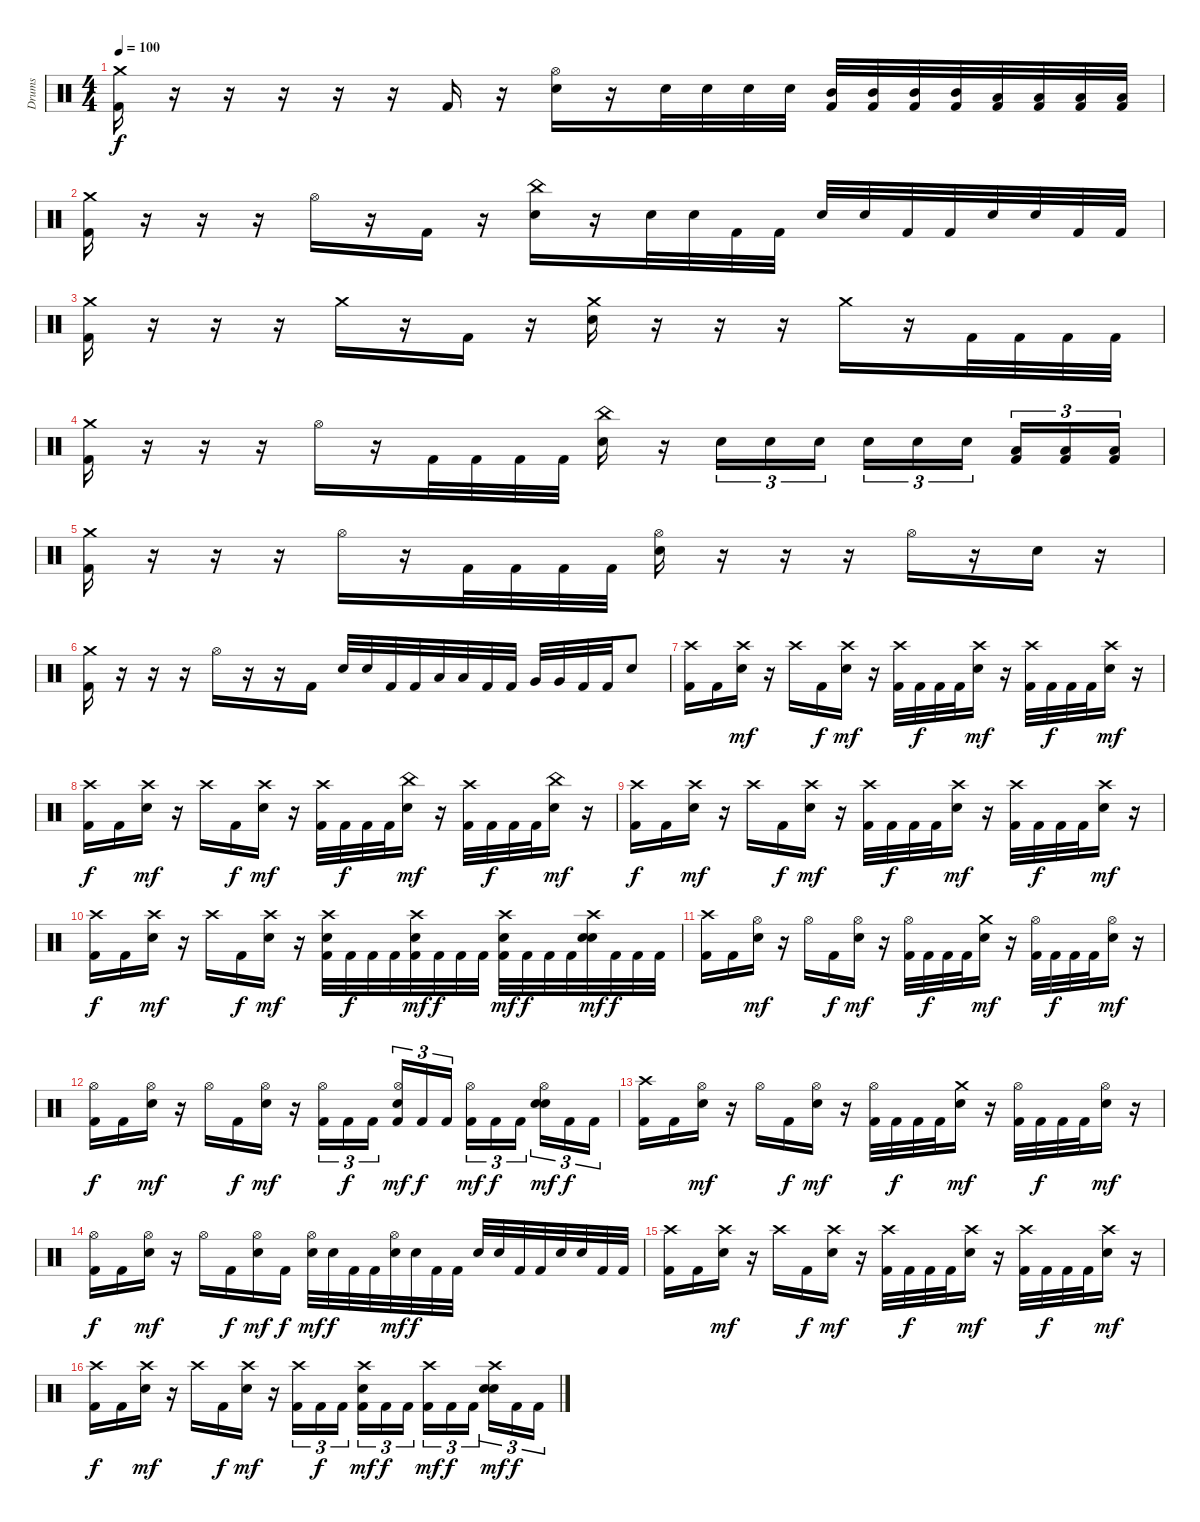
\track ("Drums " "Drums ") {instrument percussion}
\staff {score}
\articulation defaults
\ts (4 4)
\tempo 100
\clef neutral
\ks c
("Crash medium (hit)" "Kick (hit) 2").16{dy f} r.16 r.16 r.16 r.16 r.16 "Kick (hit) 2".16 r.16 ("Hi-Hat (open)" "Electric Snare (hit)").16 r.16 "Electric Snare (hit)".32 "Electric Snare (hit)".32 "Electric Snare (hit)".32 "Electric Snare (hit)".32 ("Mid Tom (hit)" "Kick (hit) 2").32 ("Mid Tom (hit)" "Kick (hit) 2").32 ("Mid Tom (hit)" "Kick (hit) 2").32 ("Mid Tom (hit)" "Kick (hit) 2").32 ("Low Tom (hit)" "Kick (hit) 2").32 ("Low Tom (hit)" "Kick (hit) 2").32 ("Low Tom (hit)" "Kick (hit) 2").32 ("Low Tom (hit)" "Kick (hit) 2").32 |
("Crash medium (hit)" "Kick (hit) 2").16 r.16 r.16 r.16 "Hi-Hat (open)".16 r.16 "Kick (hit) 2".16 r.16 ("China (hit)" "Electric Snare (hit)").16 r.16 "Electric Snare (hit)".32 "Electric Snare (hit)".32 "Kick (hit) 2".32 "Kick (hit) 2".32 "Electric Snare (hit)".32 "Electric Snare (hit)".32 "Kick (hit) 2".32 "Kick (hit) 2".32 "Electric Snare (hit)".32 "Electric Snare (hit)".32 "Kick (hit) 2".32 "Kick (hit) 2".32 |
("Crash medium (hit)" "Kick (hit) 2").16 r.16 r.16 r.16 "Crash medium (hit)".16 r.16 "Kick (hit) 2".16 r.16 ("Crash medium (hit)" "Electric Snare (hit)").16 r.16 r.16 r.16 "Crash medium (hit)".16 r.16 "Kick (hit) 2".32 "Kick (hit) 2".32 "Kick (hit) 2".32 "Kick (hit) 2".32 |
("Crash medium (hit)" "Kick (hit) 2").16 r.16 r.16 r.16 "Hi-Hat (open)".16 r.16 "Kick (hit) 2".32 "Kick (hit) 2".32 "Kick (hit) 2".32 "Kick (hit) 2".32 ("China (hit)" "Electric Snare (hit)").16 r.16 "Electric Snare (hit)".16{tu (3 2)} "Electric Snare (hit)".16{tu (3 2)} "Electric Snare (hit)".16{tu (3 2)} "Electric Snare (hit)".16{tu (3 2)} "Electric Snare (hit)".16{tu (3 2)} "Electric Snare (hit)".16{tu (3 2) beam splitsecondary} ("Low Tom (hit)" "Kick (hit) 2").16{tu (3 2)} ("Low Tom (hit)" "Kick (hit) 2").16{tu (3 2)} ("Low Tom (hit)" "Kick (hit) 2").16{tu (3 2)} |
("Crash medium (hit)" "Kick (hit) 2").16 r.16 r.16 r.16 "Hi-Hat (open)".16 r.16 "Kick (hit) 2".32 "Kick (hit) 2".32 "Kick (hit) 2".32 "Kick (hit) 2".32 ("Hi-Hat (open)" "Electric Snare (hit)").16 r.16 r.16 r.16 "Hi-Hat (open)".16 r.16 "Electric Snare (hit)".16 r.16 |
("Crash medium (hit)" "Kick (hit) 2").16 r.16 r.16 r.16 "Hi-Hat (open)".16 r.16 r.16 "Kick (hit) 2".16 "Electric Snare (hit)".32 "Electric Snare (hit)".32 "Kick (hit) 2".32 "Kick (hit) 2".32 "Low Tom (hit)".32 "Low Tom (hit)".32 "Kick (hit) 2".32 "Kick (hit) 2".32 "Very Low Tom (hit)".32 "Very Low Tom (hit)".32 "Kick (hit) 2".32 "Kick (hit) 2".32 "Electric Snare (hit)".8 |
("Crash high (hit)" "Kick (hit) 2").16 "Kick (hit) 2".16 ("Crash high (hit)" "Electric Snare (hit)").16{dy mf} r.16 "Crash high (hit)".16 "Kick (hit) 2".16{dy f} ("Crash high (hit)" "Electric Snare (hit)").16{dy mf} r.16 ("Crash high (hit)" "Kick (hit) 2").32 "Kick (hit) 2".32{dy f} "Kick (hit) 2".32 "Kick (hit) 2".32 ("Crash high (hit)" "Electric Snare (hit)").16{dy mf} r.16 ("Crash high (hit)" "Kick (hit) 2").32 "Kick (hit) 2".32{dy f} "Kick (hit) 2".32 "Kick (hit) 2".32 ("Crash high (hit)" "Electric Snare (hit)").16{dy mf} r.16 |
("Crash high (hit)" "Kick (hit) 2").16{dy f} "Kick (hit) 2".16 ("Crash high (hit)" "Electric Snare (hit)").16{dy mf} r.16 "Crash high (hit)".16 "Kick (hit) 2".16{dy f} ("Crash high (hit)" "Electric Snare (hit)").16{dy mf} r.16 ("Crash high (hit)" "Kick (hit) 2").32 "Kick (hit) 2".32{dy f} "Kick (hit) 2".32 "Kick (hit) 2".32 ("China (hit)" "Electric Snare (hit)").16{dy mf} r.16 ("Crash high (hit)" "Kick (hit) 2").32 "Kick (hit) 2".32{dy f} "Kick (hit) 2".32 "Kick (hit) 2".32 ("China (hit)" "Electric Snare (hit)").16{dy mf} r.16 |
("Crash high (hit)" "Kick (hit) 2").16{dy f} "Kick (hit) 2".16 ("Crash high (hit)" "Electric Snare (hit)").16{dy mf} r.16 "Crash high (hit)".16 "Kick (hit) 2".16{dy f} ("Crash high (hit)" "Electric Snare (hit)").16{dy mf} r.16 ("Crash high (hit)" "Kick (hit) 2").32 "Kick (hit) 2".32{dy f} "Kick (hit) 2".32 "Kick (hit) 2".32 ("Crash high (hit)" "Electric Snare (hit)").16{dy mf} r.16 ("Crash high (hit)" "Kick (hit) 2").32 "Kick (hit) 2".32{dy f} "Kick (hit) 2".32 "Kick (hit) 2".32 ("Crash high (hit)" "Electric Snare (hit)").16{dy mf} r.16 |
("Crash high (hit)" "Kick (hit) 2").16{dy f} "Kick (hit) 2".16 ("Crash high (hit)" "Electric Snare (hit)").16{dy mf} r.16 "Crash high (hit)".16 "Kick (hit) 2".16{dy f} ("Crash high (hit)" "Electric Snare (hit)").16{dy mf} r.16 ("Crash high (hit)" "Electric Snare (hit)" "Kick (hit) 2").32 "Kick (hit) 2".32{dy f} "Kick (hit) 2".32 "Kick (hit) 2".32 ("Crash high (hit)" "Electric Snare (hit)" "Kick (hit) 2").32{dy mf} "Kick (hit) 2".32{dy f} "Kick (hit) 2".32 "Kick (hit) 2".32 ("Crash high (hit)" "Electric Snare (hit)" "Kick (hit) 2").32{dy mf} "Kick (hit) 2".32{dy f} "Kick (hit) 2".32 "Kick (hit) 2".32 ("Crash high (hit)" "Electric Snare (hit)" "Electric Snare (hit)").32{dy mf} "Kick (hit) 2".32{dy f} "Kick (hit) 2".32 "Kick (hit) 2".32 |
("Crash high (hit)" "Kick (hit) 2").16 "Kick (hit) 2".16 ("Hi-Hat (open)" "Electric Snare (hit)").16{dy mf} r.16 "Hi-Hat (open)".16 "Kick (hit) 2".16{dy f} ("Hi-Hat (open)" "Electric Snare (hit)").16{dy mf} r.16 ("Hi-Hat (open)" "Kick (hit) 2").32 "Kick (hit) 2".32{dy f} "Kick (hit) 2".32 "Kick (hit) 2".32 ("Crash medium (hit)" "Electric Snare (hit)").16{dy mf} r.16 ("Hi-Hat (open)" "Kick (hit) 2").32 "Kick (hit) 2".32{dy f} "Kick (hit) 2".32 "Kick (hit) 2".32 ("Hi-Hat (open)" "Electric Snare (hit)").16{dy mf} r.16 |
("Hi-Hat (open)" "Kick (hit) 2").16{dy f} "Kick (hit) 2".16 ("Hi-Hat (open)" "Electric Snare (hit)").16{dy mf} r.16 "Hi-Hat (open)".16 "Kick (hit) 2".16{dy f} ("Hi-Hat (open)" "Electric Snare (hit)").16{dy mf} r.16 ("Hi-Hat (open)" "Kick (hit) 2").16{tu (3 2)} "Kick (hit) 2".16{tu (3 2) dy f} "Kick (hit) 2".16{tu (3 2) beam splitsecondary} ("Hi-Hat (open)" "Electric Snare (hit)" "Kick (hit) 2").16{tu (3 2) dy mf} "Kick (hit) 2".16{tu (3 2) dy f} "Kick (hit) 2".16{tu (3 2)} ("Hi-Hat (open)" "Kick (hit) 2").16{tu (3 2) dy mf} "Kick (hit) 2".16{tu (3 2) dy f} "Kick (hit) 2".16{tu (3 2) beam splitsecondary} ("Hi-Hat (open)" "Electric Snare (hit)" "Electric Snare (hit)").16{tu (3 2) dy mf} "Kick (hit) 2".16{tu (3 2) dy f} "Kick (hit) 2".16{tu (3 2)} |
("Crash high (hit)" "Kick (hit) 2").16 "Kick (hit) 2".16 ("Hi-Hat (open)" "Electric Snare (hit)").16{dy mf} r.16 "Hi-Hat (open)".16 "Kick (hit) 2".16{dy f} ("Hi-Hat (open)" "Electric Snare (hit)").16{dy mf} r.16 ("Hi-Hat (open)" "Kick (hit) 2").32 "Kick (hit) 2".32{dy f} "Kick (hit) 2".32 "Kick (hit) 2".32 ("Crash medium (hit)" "Electric Snare (hit)").16{dy mf} r.16 ("Hi-Hat (open)" "Kick (hit) 2").32 "Kick (hit) 2".32{dy f} "Kick (hit) 2".32 "Kick (hit) 2".32 ("Hi-Hat (open)" "Electric Snare (hit)").16{dy mf} r.16 |
("Hi-Hat (open)" "Kick (hit) 2").16{dy f} "Kick (hit) 2".16 ("Hi-Hat (open)" "Electric Snare (hit)").16{dy mf} r.16 "Hi-Hat (open)".16 "Kick (hit) 2".16{dy f} ("Hi-Hat (open)" "Electric Snare (hit)").16{dy mf} "Kick (hit) 2".16{dy f} ("Hi-Hat (open)" "Electric Snare (hit)").32{dy mf} "Electric Snare (hit)".32{dy f} "Kick (hit) 2".32 "Kick (hit) 2".32 ("Hi-Hat (open)" "Electric Snare (hit)").32{dy mf} "Electric Snare (hit)".32{dy f} "Kick (hit) 2".32 "Kick (hit) 2".32 "Electric Snare (hit)".32 "Electric Snare (hit)".32 "Kick (hit) 2".32 "Kick (hit) 2".32 "Electric Snare (hit)".32 "Electric Snare (hit)".32 "Kick (hit) 2".32 "Kick (hit) 2".32 |
("Crash high (hit)" "Kick (hit) 2").16 "Kick (hit) 2".16 ("Crash high (hit)" "Electric Snare (hit)").16{dy mf} r.16 "Crash high (hit)".16 "Kick (hit) 2".16{dy f} ("Crash high (hit)" "Electric Snare (hit)").16{dy mf} r.16 ("Crash high (hit)" "Kick (hit) 2").32 "Kick (hit) 2".32{dy f} "Kick (hit) 2".32 "Kick (hit) 2".32 ("Crash high (hit)" "Electric Snare (hit)").16{dy mf} r.16 ("Crash high (hit)" "Kick (hit) 2").32 "Kick (hit) 2".32{dy f} "Kick (hit) 2".32 "Kick (hit) 2".32 ("Crash high (hit)" "Electric Snare (hit)").16{dy mf} r.16 |
("Crash high (hit)" "Kick (hit) 2").16{dy f} "Kick (hit) 2".16 ("Crash high (hit)" "Electric Snare (hit)").16{dy mf} r.16 "Crash high (hit)".16 "Kick (hit) 2".16{dy f} ("Crash high (hit)" "Electric Snare (hit)").16{dy mf} r.16 ("Crash high (hit)" "Kick (hit) 2").16{tu (3 2)} "Kick (hit) 2".16{tu (3 2) dy f} "Kick (hit) 2".16{tu (3 2) beam splitsecondary} ("Crash high (hit)" "Electric Snare (hit)" "Kick (hit) 2").16{tu (3 2) dy mf} "Kick (hit) 2".16{tu (3 2) dy f} "Kick (hit) 2".16{tu (3 2)} ("Crash high (hit)" "Kick (hit) 2").16{tu (3 2) dy mf} "Kick (hit) 2".16{tu (3 2) dy f} "Kick (hit) 2".16{tu (3 2) beam splitsecondary} ("Crash high (hit)" "Electric Snare (hit)" "Electric Snare (hit)").16{tu (3 2) dy mf} "Kick (hit) 2".16{tu (3 2) dy f} "Kick (hit) 2".16{tu (3 2)}
